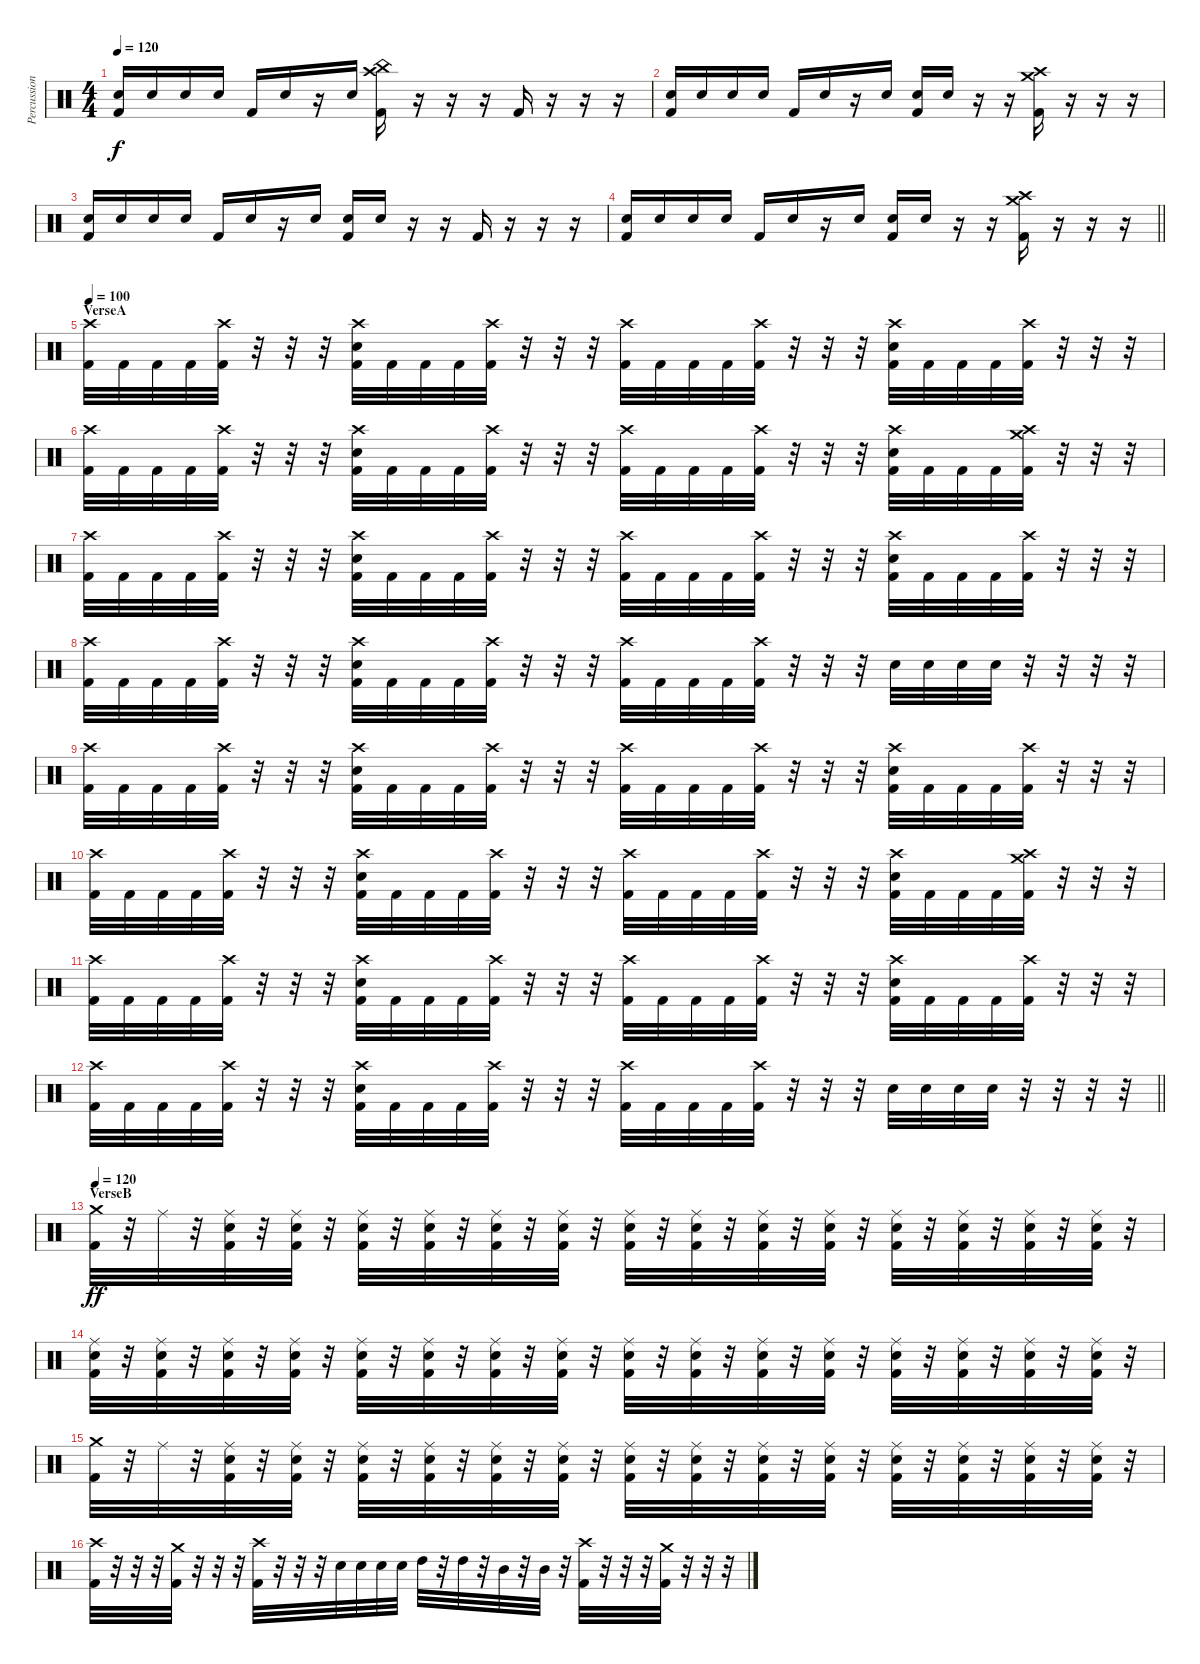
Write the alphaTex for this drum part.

\track ("Percussion" "Percussion") {instrument percussion}
\staff {score}
\articulation defaults
\ts (4 4)
\tempo 120
\clef neutral
\ks c
("Snare (hit) 2" "Kick (hit) 2").16{dy f} "Snare (hit) 2".16 "Snare (hit) 2".16 "Snare (hit) 2".16 "Kick (hit) 2".16 "Snare (hit) 2".16 r.16 "Snare (hit) 2".16 ("Crash high (hit)" "China (hit)" "Kick (hit) 2").16 r.16 r.16 r.16 "Kick (hit) 2".16 r.16 r.16 r.16 |
("Snare (hit) 2" "Kick (hit) 2").16 "Snare (hit) 2".16 "Snare (hit) 2".16 "Snare (hit) 2".16 "Kick (hit) 2".16 "Snare (hit) 2".16 r.16 "Snare (hit) 2".16 ("Snare (hit) 2" "Kick (hit) 2").16 "Snare (hit) 2".16 r.16 r.16 ("Crash high (hit)" "Crash medium (hit)" "Kick (hit) 2").16 r.16 r.16 r.16 |
("Snare (hit) 2" "Kick (hit) 2").16 "Snare (hit) 2".16 "Snare (hit) 2".16 "Snare (hit) 2".16 "Kick (hit) 2".16 "Snare (hit) 2".16 r.16 "Snare (hit) 2".16 ("Snare (hit) 2" "Kick (hit) 2").16 "Snare (hit) 2".16 r.16 r.16 "Kick (hit) 2".16 r.16 r.16 r.16 |
\barLineRight lightlight
("Snare (hit) 2" "Kick (hit) 2").16 "Snare (hit) 2".16 "Snare (hit) 2".16 "Snare (hit) 2".16 "Kick (hit) 2".16 "Snare (hit) 2".16 r.16 "Snare (hit) 2".16 ("Snare (hit) 2" "Kick (hit) 2").16 "Snare (hit) 2".16 r.16 r.16 ("Crash high (hit)" "Crash medium (hit)" "Kick (hit) 2").16 r.16 r.16 r.16 |
\section ("" "VerseA")
\tempo 100
("Crash high (hit)" "Kick (hit) 2").32 "Kick (hit) 2".32 "Kick (hit) 2".32 "Kick (hit) 2".32 ("Crash high (hit)" "Kick (hit) 2").32 r.32 r.32 r.32 ("Crash high (hit)" "Snare (hit) 2" "Kick (hit) 2").32 "Kick (hit) 2".32 "Kick (hit) 2".32 "Kick (hit) 2".32 ("Crash high (hit)" "Kick (hit) 2").32 r.32 r.32 r.32 ("Crash high (hit)" "Kick (hit) 2").32 "Kick (hit) 2".32 "Kick (hit) 2".32 "Kick (hit) 2".32 ("Crash high (hit)" "Kick (hit) 2").32 r.32 r.32 r.32 ("Crash high (hit)" "Snare (hit) 2" "Kick (hit) 2").32 "Kick (hit) 2".32 "Kick (hit) 2".32 "Kick (hit) 2".32 ("Crash high (hit)" "Kick (hit) 2").32 r.32 r.32 r.32 |
("Crash high (hit)" "Kick (hit) 2").32 "Kick (hit) 2".32 "Kick (hit) 2".32 "Kick (hit) 2".32 ("Crash high (hit)" "Kick (hit) 2").32 r.32 r.32 r.32 ("Crash high (hit)" "Snare (hit) 2" "Kick (hit) 2").32 "Kick (hit) 2".32 "Kick (hit) 2".32 "Kick (hit) 2".32 ("Crash high (hit)" "Kick (hit) 2").32 r.32 r.32 r.32 ("Crash high (hit)" "Kick (hit) 2").32 "Kick (hit) 2".32 "Kick (hit) 2".32 "Kick (hit) 2".32 ("Crash high (hit)" "Kick (hit) 2").32 r.32 r.32 r.32 ("Crash high (hit)" "Snare (hit) 2" "Kick (hit) 2").32 "Kick (hit) 2".32 "Kick (hit) 2".32 "Kick (hit) 2".32 ("Crash high (hit)" "Crash medium (hit)" "Kick (hit) 2").32 r.32 r.32 r.32 |
("Crash high (hit)" "Kick (hit) 2").32 "Kick (hit) 2".32 "Kick (hit) 2".32 "Kick (hit) 2".32 ("Crash high (hit)" "Kick (hit) 2").32 r.32 r.32 r.32 ("Crash high (hit)" "Snare (hit) 2" "Kick (hit) 2").32 "Kick (hit) 2".32 "Kick (hit) 2".32 "Kick (hit) 2".32 ("Crash high (hit)" "Kick (hit) 2").32 r.32 r.32 r.32 ("Crash high (hit)" "Kick (hit) 2").32 "Kick (hit) 2".32 "Kick (hit) 2".32 "Kick (hit) 2".32 ("Crash high (hit)" "Kick (hit) 2").32 r.32 r.32 r.32 ("Crash high (hit)" "Snare (hit) 2" "Kick (hit) 2").32 "Kick (hit) 2".32 "Kick (hit) 2".32 "Kick (hit) 2".32 ("Crash high (hit)" "Kick (hit) 2").32 r.32 r.32 r.32 |
("Crash high (hit)" "Kick (hit) 2").32 "Kick (hit) 2".32 "Kick (hit) 2".32 "Kick (hit) 2".32 ("Crash high (hit)" "Kick (hit) 2").32 r.32 r.32 r.32 ("Crash high (hit)" "Snare (hit) 2" "Kick (hit) 2").32 "Kick (hit) 2".32 "Kick (hit) 2".32 "Kick (hit) 2".32 ("Crash high (hit)" "Kick (hit) 2").32 r.32 r.32 r.32 ("Crash high (hit)" "Kick (hit) 2").32 "Kick (hit) 2".32 "Kick (hit) 2".32 "Kick (hit) 2".32 ("Crash high (hit)" "Kick (hit) 2").32 r.32 r.32 r.32 "Snare (hit) 2".32 "Snare (hit) 2".32 "Snare (hit) 2".32 "Snare (hit) 2".32 r.32 r.32 r.32 r.32 |
("Crash high (hit)" "Kick (hit) 2").32 "Kick (hit) 2".32 "Kick (hit) 2".32 "Kick (hit) 2".32 ("Crash high (hit)" "Kick (hit) 2").32 r.32 r.32 r.32 ("Crash high (hit)" "Snare (hit) 2" "Kick (hit) 2").32 "Kick (hit) 2".32 "Kick (hit) 2".32 "Kick (hit) 2".32 ("Crash high (hit)" "Kick (hit) 2").32 r.32 r.32 r.32 ("Crash high (hit)" "Kick (hit) 2").32 "Kick (hit) 2".32 "Kick (hit) 2".32 "Kick (hit) 2".32 ("Crash high (hit)" "Kick (hit) 2").32 r.32 r.32 r.32 ("Crash high (hit)" "Snare (hit) 2" "Kick (hit) 2").32 "Kick (hit) 2".32 "Kick (hit) 2".32 "Kick (hit) 2".32 ("Crash high (hit)" "Kick (hit) 2").32 r.32 r.32 r.32 |
("Crash high (hit)" "Kick (hit) 2").32 "Kick (hit) 2".32 "Kick (hit) 2".32 "Kick (hit) 2".32 ("Crash high (hit)" "Kick (hit) 2").32 r.32 r.32 r.32 ("Crash high (hit)" "Snare (hit) 2" "Kick (hit) 2").32 "Kick (hit) 2".32 "Kick (hit) 2".32 "Kick (hit) 2".32 ("Crash high (hit)" "Kick (hit) 2").32 r.32 r.32 r.32 ("Crash high (hit)" "Kick (hit) 2").32 "Kick (hit) 2".32 "Kick (hit) 2".32 "Kick (hit) 2".32 ("Crash high (hit)" "Kick (hit) 2").32 r.32 r.32 r.32 ("Crash high (hit)" "Snare (hit) 2" "Kick (hit) 2").32 "Kick (hit) 2".32 "Kick (hit) 2".32 "Kick (hit) 2".32 ("Crash high (hit)" "Crash medium (hit)" "Kick (hit) 2").32 r.32 r.32 r.32 |
("Crash high (hit)" "Kick (hit) 2").32 "Kick (hit) 2".32 "Kick (hit) 2".32 "Kick (hit) 2".32 ("Crash high (hit)" "Kick (hit) 2").32 r.32 r.32 r.32 ("Crash high (hit)" "Snare (hit) 2" "Kick (hit) 2").32 "Kick (hit) 2".32 "Kick (hit) 2".32 "Kick (hit) 2".32 ("Crash high (hit)" "Kick (hit) 2").32 r.32 r.32 r.32 ("Crash high (hit)" "Kick (hit) 2").32 "Kick (hit) 2".32 "Kick (hit) 2".32 "Kick (hit) 2".32 ("Crash high (hit)" "Kick (hit) 2").32 r.32 r.32 r.32 ("Crash high (hit)" "Snare (hit) 2" "Kick (hit) 2").32 "Kick (hit) 2".32 "Kick (hit) 2".32 "Kick (hit) 2".32 ("Crash high (hit)" "Kick (hit) 2").32 r.32 r.32 r.32 |
\barLineRight lightlight
("Crash high (hit)" "Kick (hit) 2").32 "Kick (hit) 2".32 "Kick (hit) 2".32 "Kick (hit) 2".32 ("Crash high (hit)" "Kick (hit) 2").32 r.32 r.32 r.32 ("Crash high (hit)" "Snare (hit) 2" "Kick (hit) 2").32 "Kick (hit) 2".32 "Kick (hit) 2".32 "Kick (hit) 2".32 ("Crash high (hit)" "Kick (hit) 2").32 r.32 r.32 r.32 ("Crash high (hit)" "Kick (hit) 2").32 "Kick (hit) 2".32 "Kick (hit) 2".32 "Kick (hit) 2".32 ("Crash high (hit)" "Kick (hit) 2").32 r.32 r.32 r.32 "Snare (hit) 2".32 "Snare (hit) 2".32 "Snare (hit) 2".32 "Snare (hit) 2".32 r.32 r.32 r.32 r.32 |
\section ("" "VerseB")
\tempo 120
("Crash medium (hit)" "Kick (hit) 2").32{dy ff} r.32 "Ride (middle)".32 r.32 ("Ride (middle)" "Snare (hit) 2" "Kick (hit) 2").32 r.32 ("Ride (middle)" "Snare (hit) 2" "Kick (hit) 2").32 r.32 ("Ride (middle)" "Snare (hit) 2" "Kick (hit) 2").32 r.32 ("Ride (middle)" "Snare (hit) 2" "Kick (hit) 2").32 r.32 ("Ride (middle)" "Snare (hit) 2" "Kick (hit) 2").32 r.32 ("Ride (middle)" "Snare (hit) 2" "Kick (hit) 2").32 r.32 ("Ride (middle)" "Snare (hit) 2" "Kick (hit) 2").32 r.32 ("Ride (middle)" "Snare (hit) 2" "Kick (hit) 2").32 r.32 ("Ride (middle)" "Snare (hit) 2" "Kick (hit) 2").32 r.32 ("Ride (middle)" "Snare (hit) 2" "Kick (hit) 2").32 r.32 ("Ride (middle)" "Snare (hit) 2" "Kick (hit) 2").32 r.32 ("Ride (middle)" "Snare (hit) 2" "Kick (hit) 2").32 r.32 ("Ride (middle)" "Snare (hit) 2" "Kick (hit) 2").32 r.32 ("Ride (middle)" "Snare (hit) 2" "Kick (hit) 2").32 r.32 |
("Ride (middle)" "Snare (hit) 2" "Kick (hit) 2").32 r.32 ("Ride (middle)" "Snare (hit) 2" "Kick (hit) 2").32 r.32 ("Ride (middle)" "Snare (hit) 2" "Kick (hit) 2").32 r.32 ("Ride (middle)" "Snare (hit) 2" "Kick (hit) 2").32 r.32 ("Ride (middle)" "Snare (hit) 2" "Kick (hit) 2").32 r.32 ("Ride (middle)" "Snare (hit) 2" "Kick (hit) 2").32 r.32 ("Ride (middle)" "Snare (hit) 2" "Kick (hit) 2").32 r.32 ("Ride (middle)" "Snare (hit) 2" "Kick (hit) 2").32 r.32 ("Ride (middle)" "Snare (hit) 2" "Kick (hit) 2").32 r.32 ("Ride (middle)" "Snare (hit) 2" "Kick (hit) 2").32 r.32 ("Ride (middle)" "Snare (hit) 2" "Kick (hit) 2").32 r.32 ("Ride (middle)" "Snare (hit) 2" "Kick (hit) 2").32 r.32 ("Ride (middle)" "Snare (hit) 2" "Kick (hit) 2").32 r.32 ("Ride (middle)" "Snare (hit) 2" "Kick (hit) 2").32 r.32 ("Ride (middle)" "Snare (hit) 2" "Kick (hit) 2").32 r.32 ("Ride (middle)" "Snare (hit) 2" "Kick (hit) 2").32 r.32 |
("Crash medium (hit)" "Kick (hit) 2").32 r.32 "Ride (middle)".32 r.32 ("Ride (middle)" "Snare (hit) 2" "Kick (hit) 2").32 r.32 ("Ride (middle)" "Snare (hit) 2" "Kick (hit) 2").32 r.32 ("Ride (middle)" "Snare (hit) 2" "Kick (hit) 2").32 r.32 ("Ride (middle)" "Snare (hit) 2" "Kick (hit) 2").32 r.32 ("Ride (middle)" "Snare (hit) 2" "Kick (hit) 2").32 r.32 ("Ride (middle)" "Snare (hit) 2" "Kick (hit) 2").32 r.32 ("Ride (middle)" "Snare (hit) 2" "Kick (hit) 2").32 r.32 ("Ride (middle)" "Snare (hit) 2" "Kick (hit) 2").32 r.32 ("Ride (middle)" "Snare (hit) 2" "Kick (hit) 2").32 r.32 ("Ride (middle)" "Snare (hit) 2" "Kick (hit) 2").32 r.32 ("Ride (middle)" "Snare (hit) 2" "Kick (hit) 2").32 r.32 ("Ride (middle)" "Snare (hit) 2" "Kick (hit) 2").32 r.32 ("Ride (middle)" "Snare (hit) 2" "Kick (hit) 2").32 r.32 ("Ride (middle)" "Snare (hit) 2" "Kick (hit) 2").32 r.32 |
("Crash high (hit)" "Kick (hit) 2").32 r.32 r.32 r.32 ("Crash medium (hit)" "Kick (hit) 2").32 r.32 r.32 r.32 ("Crash high (hit)" "Kick (hit) 2").32 r.32 r.32 r.32 "Snare (hit) 2".32 "Snare (hit) 2".32 "Snare (hit) 2".32 "Snare (hit) 2".32 "High Tom (hit)".32 r.32 "High Tom (hit)".32 r.32 "Mid Tom (hit)".32 r.32 "Mid Tom (hit)".32 r.32 ("Crash high (hit)" "Kick (hit) 2").32 r.32 r.32 r.32 ("Crash medium (hit)" "Kick (hit) 2").32 r.32 r.32 r.32
